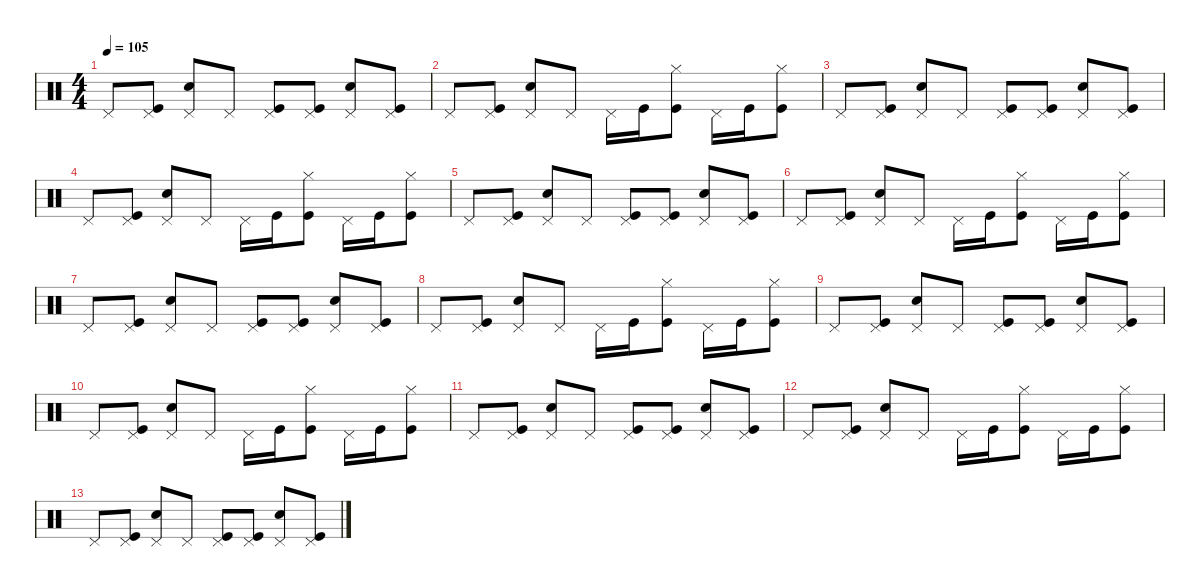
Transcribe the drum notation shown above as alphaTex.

\defaultSystemsLayout 4
\hideDynamics
\bracketExtendMode nobrackets
\singleTrackTrackNamePolicy hidden
\multiTrackTrackNamePolicy hidden
\otherSystemsTrackNameOrientation horizontal
\track ("Bonham" "drm.") {defaultSystemsLayout 4 instrument percussion}
\staff {score}
\articulation defaults
\ts (4 4)
\tempo 105
\clef neutral
\ks c "Pedal Hi-Hat (hit)".8{dy ff beam Up}
("Kick (hit)" "Pedal Hi-Hat (hit)").8{beam Up} ("Snare (hit) 2" "Pedal Hi-Hat (hit)").8{beam Up} "Pedal Hi-Hat (hit)".8{beam Up} ("Kick (hit)" "Pedal Hi-Hat (hit)").8{beam Up} ("Kick (hit)" "Pedal Hi-Hat (hit)").8{beam Up} ("Snare (hit) 2" "Pedal Hi-Hat (hit)").8{beam Up} ("Kick (hit)" "Pedal Hi-Hat (hit)").8{beam Up} |
"Pedal Hi-Hat (hit)".8{beam Up} ("Kick (hit)" "Pedal Hi-Hat (hit)").8{beam Up} ("Snare (hit) 2" "Pedal Hi-Hat (hit)").8{beam Up} "Pedal Hi-Hat (hit)".8{beam Up} "Pedal Hi-Hat (hit)".16{beam Down} "Kick (hit)".16{beam Down} ("Kick (hit)" "Hi-Hat (closed)").8{beam Down} "Pedal Hi-Hat (hit)".16{beam Down} "Kick (hit)".16{beam Down} ("Kick (hit)" "Hi-Hat (closed)").8{beam Down} |
"Pedal Hi-Hat (hit)".8{beam Up} ("Kick (hit)" "Pedal Hi-Hat (hit)").8{beam Up} ("Snare (hit) 2" "Pedal Hi-Hat (hit)").8{beam Up} "Pedal Hi-Hat (hit)".8{beam Up} ("Kick (hit)" "Pedal Hi-Hat (hit)").8{beam Up} ("Kick (hit)" "Pedal Hi-Hat (hit)").8{beam Up} ("Snare (hit) 2" "Pedal Hi-Hat (hit)").8{beam Up} ("Kick (hit)" "Pedal Hi-Hat (hit)").8{beam Up} |
"Pedal Hi-Hat (hit)".8{beam Up} ("Kick (hit)" "Pedal Hi-Hat (hit)").8{beam Up} ("Snare (hit) 2" "Pedal Hi-Hat (hit)").8{beam Up} "Pedal Hi-Hat (hit)".8{beam Up} "Pedal Hi-Hat (hit)".16{beam Down} "Kick (hit)".16{beam Down} ("Kick (hit)" "Hi-Hat (closed)").8{beam Down} "Pedal Hi-Hat (hit)".16{beam Down} "Kick (hit)".16{beam Down} ("Kick (hit)" "Hi-Hat (closed)").8{beam Down} |
"Pedal Hi-Hat (hit)".8{beam Up} ("Kick (hit)" "Pedal Hi-Hat (hit)").8{beam Up} ("Snare (hit) 2" "Pedal Hi-Hat (hit)").8{beam Up} "Pedal Hi-Hat (hit)".8{beam Up} ("Kick (hit)" "Pedal Hi-Hat (hit)").8{beam Up} ("Kick (hit)" "Pedal Hi-Hat (hit)").8{beam Up} ("Snare (hit) 2" "Pedal Hi-Hat (hit)").8{beam Up} ("Kick (hit)" "Pedal Hi-Hat (hit)").8{beam Up} |
"Pedal Hi-Hat (hit)".8{beam Up} ("Kick (hit)" "Pedal Hi-Hat (hit)").8{beam Up} ("Snare (hit) 2" "Pedal Hi-Hat (hit)").8{beam Up} "Pedal Hi-Hat (hit)".8{beam Up} "Pedal Hi-Hat (hit)".16{beam Down} "Kick (hit)".16{beam Down} ("Kick (hit)" "Hi-Hat (closed)").8{beam Down} "Pedal Hi-Hat (hit)".16{beam Down} "Kick (hit)".16{beam Down} ("Kick (hit)" "Hi-Hat (closed)").8{beam Down} |
"Pedal Hi-Hat (hit)".8{beam Up} ("Kick (hit)" "Pedal Hi-Hat (hit)").8{beam Up} ("Snare (hit) 2" "Pedal Hi-Hat (hit)").8{beam Up} "Pedal Hi-Hat (hit)".8{beam Up} ("Kick (hit)" "Pedal Hi-Hat (hit)").8{beam Up} ("Kick (hit)" "Pedal Hi-Hat (hit)").8{beam Up} ("Snare (hit) 2" "Pedal Hi-Hat (hit)").8{beam Up} ("Kick (hit)" "Pedal Hi-Hat (hit)").8{beam Up} |
"Pedal Hi-Hat (hit)".8{beam Up} ("Kick (hit)" "Pedal Hi-Hat (hit)").8{dy f beam Up} ("Snare (hit) 2" "Pedal Hi-Hat (hit)").8{beam Up} "Pedal Hi-Hat (hit)".8{beam Up} "Pedal Hi-Hat (hit)".16{beam Down} "Kick (hit)".16{beam Down} ("Kick (hit)" "Hi-Hat (closed)").8{beam Down} "Pedal Hi-Hat (hit)".16{beam Down} "Kick (hit)".16{beam Down} ("Kick (hit)" "Hi-Hat (closed)").8{beam Down} |
"Pedal Hi-Hat (hit)".8{beam Up} ("Kick (hit)" "Pedal Hi-Hat (hit)").8{dy mf beam Up} ("Snare (hit) 2" "Pedal Hi-Hat (hit)").8{beam Up} "Pedal Hi-Hat (hit)".8{beam Up} ("Kick (hit)" "Pedal Hi-Hat (hit)").8{beam Up} ("Kick (hit)" "Pedal Hi-Hat (hit)").8{beam Up} ("Snare (hit) 2" "Pedal Hi-Hat (hit)").8{beam Up} ("Kick (hit)" "Pedal Hi-Hat (hit)").8{beam Up} |
"Pedal Hi-Hat (hit)".8{beam Up} ("Kick (hit)" "Pedal Hi-Hat (hit)").8{dy mp beam Up} ("Snare (hit) 2" "Pedal Hi-Hat (hit)").8{beam Up} "Pedal Hi-Hat (hit)".8{beam Up} "Pedal Hi-Hat (hit)".16{beam Down} "Kick (hit)".16{beam Down} ("Kick (hit)" "Hi-Hat (closed)").8{beam Down} "Pedal Hi-Hat (hit)".16{beam Down} "Kick (hit)".16{beam Down} ("Kick (hit)" "Hi-Hat (closed)").8{beam Down} |
"Pedal Hi-Hat (hit)".8{beam Up} ("Kick (hit)" "Pedal Hi-Hat (hit)").8{dy p beam Up} ("Snare (hit) 2" "Pedal Hi-Hat (hit)").8{beam Up} "Pedal Hi-Hat (hit)".8{beam Up} ("Kick (hit)" "Pedal Hi-Hat (hit)").8{beam Up} ("Kick (hit)" "Pedal Hi-Hat (hit)").8{beam Up} ("Snare (hit) 2" "Pedal Hi-Hat (hit)").8{beam Up} ("Kick (hit)" "Pedal Hi-Hat (hit)").8{beam Up} |
"Pedal Hi-Hat (hit)".8{beam Up} ("Kick (hit)" "Pedal Hi-Hat (hit)").8{dy pp beam Up} ("Snare (hit) 2" "Pedal Hi-Hat (hit)").8{beam Up} "Pedal Hi-Hat (hit)".8{beam Up} "Pedal Hi-Hat (hit)".16{beam Down} "Kick (hit)".16{beam Down} ("Kick (hit)" "Hi-Hat (closed)").8{beam Down} "Pedal Hi-Hat (hit)".16{beam Down} "Kick (hit)".16{beam Down} ("Kick (hit)" "Hi-Hat (closed)").8{dy ppp beam Down} |
"Pedal Hi-Hat (hit)".8{beam Up} ("Kick (hit)" "Pedal Hi-Hat (hit)").8{beam Up} ("Snare (hit) 2" "Pedal Hi-Hat (hit)").8{beam Up} "Pedal Hi-Hat (hit)".8{beam Up} ("Kick (hit)" "Pedal Hi-Hat (hit)").8{beam Up} ("Kick (hit)" "Pedal Hi-Hat (hit)").8{beam Up} ("Snare (hit) 2" "Pedal Hi-Hat (hit)").8{beam Up} ("Kick (hit)" "Pedal Hi-Hat (hit)").8{beam Up}
